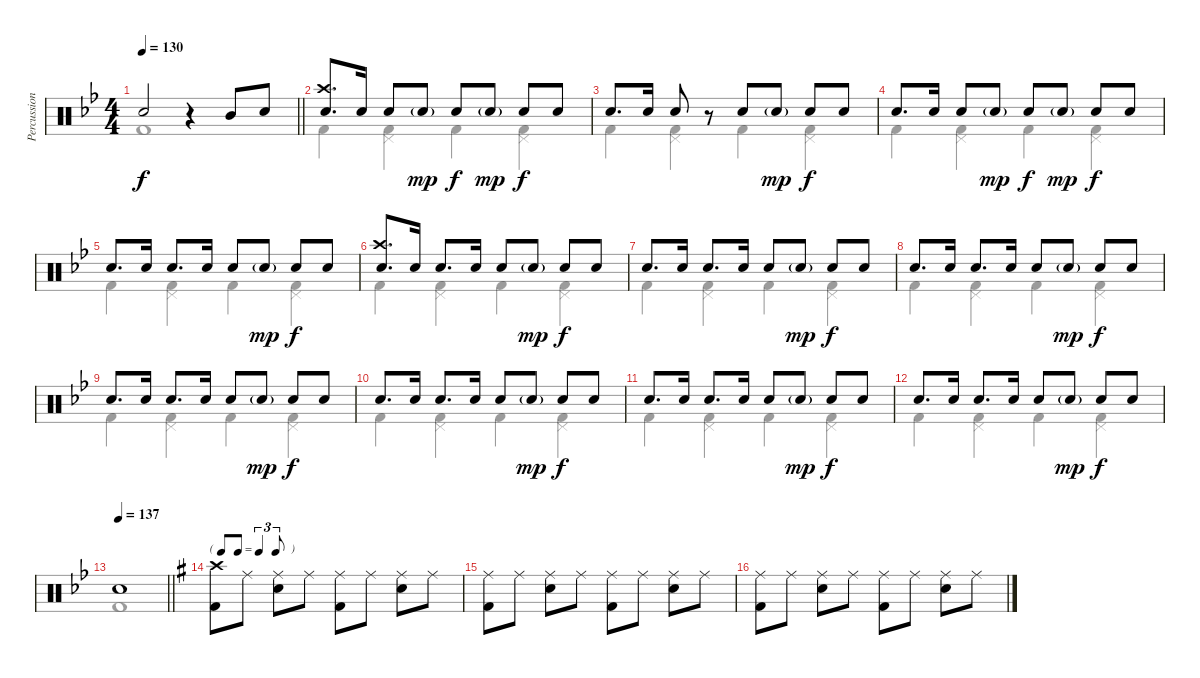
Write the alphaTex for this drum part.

\track ("Percussion" "Percussion") {instrument percussion}
\staff {score}
\articulation defaults
\voice
\ts (4 4)
\tempo 130
\clef neutral
\barLineRight lightlight
\ks gminor "Snare (hit) 2".2{dy f}
r.4 "Mid Tom (hit)".8 "Snare (hit) 2".8 |
("Crash high (hit)" "Snare (hit) 2").8{d} "Snare (hit) 2".16 "Snare (hit) 2".8 "Snare (hit) 2"{g}.8{dy mp} "Snare (hit) 2".8{dy f} "Snare (hit) 2"{g}.8{dy mp} "Snare (hit) 2".8{dy f} "Snare (hit) 2".8 |
"Snare (hit) 2".8{d} "Snare (hit) 2".16 "Snare (hit) 2".8 r.8 "Snare (hit) 2".8 "Snare (hit) 2"{g}.8{dy mp} "Snare (hit) 2".8{dy f} "Snare (hit) 2".8 |
"Snare (hit) 2".8{d} "Snare (hit) 2".16 "Snare (hit) 2".8 "Snare (hit) 2"{g}.8{dy mp} "Snare (hit) 2".8{dy f} "Snare (hit) 2"{g}.8{dy mp} "Snare (hit) 2".8{dy f} "Snare (hit) 2".8 |
"Snare (hit) 2".8{d} "Snare (hit) 2".16 "Snare (hit) 2".8{d} "Snare (hit) 2".16 "Snare (hit) 2".8 "Snare (hit) 2"{g}.8{dy mp} "Snare (hit) 2".8{dy f} "Snare (hit) 2".8 |
("Crash high (hit)" "Snare (hit) 2").8{d} "Snare (hit) 2".16 "Snare (hit) 2".8{d} "Snare (hit) 2".16 "Snare (hit) 2".8 "Snare (hit) 2"{g}.8{dy mp} "Snare (hit) 2".8{dy f} "Snare (hit) 2".8 |
"Snare (hit) 2".8{d} "Snare (hit) 2".16 "Snare (hit) 2".8{d} "Snare (hit) 2".16 "Snare (hit) 2".8 "Snare (hit) 2"{g}.8{dy mp} "Snare (hit) 2".8{dy f} "Snare (hit) 2".8 |
"Snare (hit) 2".8{d} "Snare (hit) 2".16 "Snare (hit) 2".8{d} "Snare (hit) 2".16 "Snare (hit) 2".8 "Snare (hit) 2"{g}.8{dy mp} "Snare (hit) 2".8{dy f} "Snare (hit) 2".8 |
"Snare (hit) 2".8{d} "Snare (hit) 2".16 "Snare (hit) 2".8{d} "Snare (hit) 2".16 "Snare (hit) 2".8 "Snare (hit) 2"{g}.8{dy mp} "Snare (hit) 2".8{dy f} "Snare (hit) 2".8 |
"Snare (hit) 2".8{d} "Snare (hit) 2".16 "Snare (hit) 2".8{d} "Snare (hit) 2".16 "Snare (hit) 2".8 "Snare (hit) 2"{g}.8{dy mp} "Snare (hit) 2".8{dy f} "Snare (hit) 2".8 |
"Snare (hit) 2".8{d} "Snare (hit) 2".16 "Snare (hit) 2".8{d} "Snare (hit) 2".16 "Snare (hit) 2".8 "Snare (hit) 2"{g}.8{dy mp} "Snare (hit) 2".8{dy f} "Snare (hit) 2".8 |
"Snare (hit) 2".8{d} "Snare (hit) 2".16 "Snare (hit) 2".8{d} "Snare (hit) 2".16 "Snare (hit) 2".8 "Snare (hit) 2"{g}.8{dy mp} "Snare (hit) 2".8{dy f} "Snare (hit) 2".8 |
\tempo 137
\barLineRight lightlight "Snare (hit) 2".1
|
\tf triplet8th
\ks g
("Crash high (hit)" "Kick (hit) 2").8 "Ride (middle)".8 ("Ride (middle)" "Snare (hit) 2").8 "Ride (middle)".8 ("Ride (middle)" "Kick (hit) 2").8 "Ride (middle)".8 ("Ride (middle)" "Snare (hit) 2").8 "Ride (middle)".8 |
("Ride (middle)" "Kick (hit) 2").8 "Ride (middle)".8 ("Ride (middle)" "Snare (hit) 2").8 "Ride (middle)".8 ("Ride (middle)" "Kick (hit) 2").8 "Ride (middle)".8 ("Ride (middle)" "Snare (hit) 2").8 "Ride (middle)".8 |
("Ride (middle)" "Kick (hit) 2").8 "Ride (middle)".8 ("Ride (middle)" "Snare (hit) 2").8 "Ride (middle)".8 ("Ride (middle)" "Kick (hit) 2").8 "Ride (middle)".8 ("Ride (middle)" "Snare (hit) 2").8 "Ride (middle)".8
\voice
\clef neutral
\ottava regular
\simile none
\barLineRight lightlight
\ks gminor "Kick (hit) 2".1{dy f}
|
"Kick (hit) 2".4 ("Kick (hit) 2" "Pedal Hi-Hat (hit)").4 "Kick (hit) 2".4 ("Kick (hit) 2" "Pedal Hi-Hat (hit)").4 |
"Kick (hit) 2".4 ("Kick (hit) 2" "Pedal Hi-Hat (hit)").4 "Kick (hit) 2".4 ("Kick (hit) 2" "Pedal Hi-Hat (hit)").4 |
"Kick (hit) 2".4 ("Kick (hit) 2" "Pedal Hi-Hat (hit)").4 "Kick (hit) 2".4 ("Kick (hit) 2" "Pedal Hi-Hat (hit)").4 |
"Kick (hit) 2".4 ("Kick (hit) 2" "Pedal Hi-Hat (hit)").4 "Kick (hit) 2".4 ("Kick (hit) 2" "Pedal Hi-Hat (hit)").4 |
"Kick (hit) 2".4 ("Kick (hit) 2" "Pedal Hi-Hat (hit)").4 "Kick (hit) 2".4 ("Kick (hit) 2" "Pedal Hi-Hat (hit)").4 |
"Kick (hit) 2".4 ("Kick (hit) 2" "Pedal Hi-Hat (hit)").4 "Kick (hit) 2".4 ("Kick (hit) 2" "Pedal Hi-Hat (hit)").4 |
"Kick (hit) 2".4 ("Kick (hit) 2" "Pedal Hi-Hat (hit)").4 "Kick (hit) 2".4 ("Kick (hit) 2" "Pedal Hi-Hat (hit)").4 |
"Kick (hit) 2".4 ("Kick (hit) 2" "Pedal Hi-Hat (hit)").4 "Kick (hit) 2".4 ("Kick (hit) 2" "Pedal Hi-Hat (hit)").4 |
"Kick (hit) 2".4 ("Kick (hit) 2" "Pedal Hi-Hat (hit)").4 "Kick (hit) 2".4 ("Kick (hit) 2" "Pedal Hi-Hat (hit)").4 |
"Kick (hit) 2".4 ("Kick (hit) 2" "Pedal Hi-Hat (hit)").4 "Kick (hit) 2".4 ("Kick (hit) 2" "Pedal Hi-Hat (hit)").4 |
"Kick (hit) 2".4 ("Kick (hit) 2" "Pedal Hi-Hat (hit)").4 "Kick (hit) 2".4 ("Kick (hit) 2" "Pedal Hi-Hat (hit)").4 |
\barLineRight lightlight "Kick (hit) 2".1
|
\ks g
|
|
